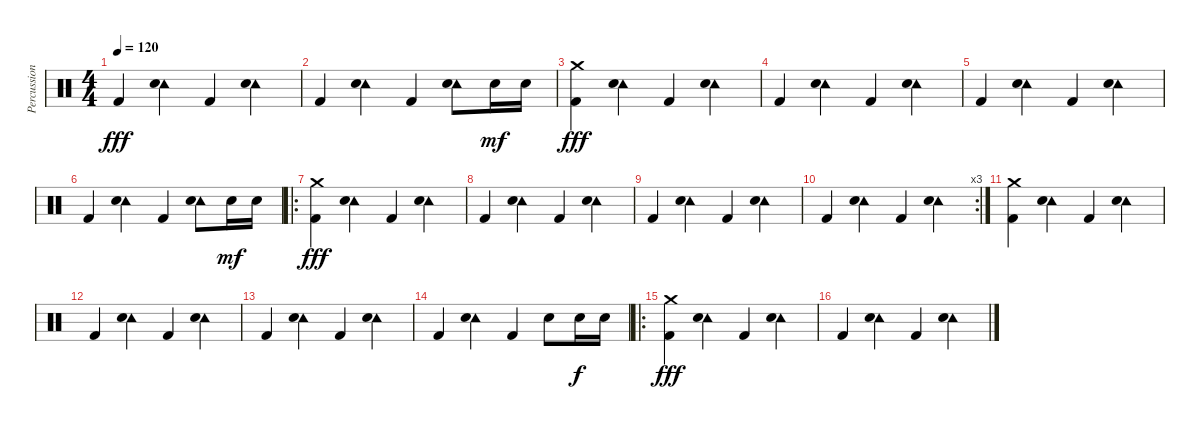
\track ("Percussion" "Percussion") {instrument percussion}
\staff {score}
\articulation defaults
\ts (4 4)
\tempo 120
\clef neutral
\ks c "Kick (hit) 2".4{dy fff}
("Tambourine (hit)" "Electric Snare (hit)").4 "Kick (hit) 2".4 ("Tambourine (hit)" "Electric Snare (hit)").4 |
"Kick (hit) 2".4 ("Tambourine (hit)" "Electric Snare (hit)").4 "Kick (hit) 2".4 ("Tambourine (hit)" "Electric Snare (hit)").8 "Electric Snare (hit)".16{dy mf} "Electric Snare (hit)".16 |
("Crash medium (hit)" "Kick (hit) 2").4{dy fff} ("Tambourine (hit)" "Electric Snare (hit)").4 "Kick (hit) 2".4 ("Tambourine (hit)" "Electric Snare (hit)").4 |
"Kick (hit) 2".4 ("Tambourine (hit)" "Electric Snare (hit)").4 "Kick (hit) 2".4 ("Tambourine (hit)" "Electric Snare (hit)").4 |
"Kick (hit) 2".4 ("Tambourine (hit)" "Electric Snare (hit)").4 "Kick (hit) 2".4 ("Tambourine (hit)" "Electric Snare (hit)").4 |
"Kick (hit) 2".4 ("Tambourine (hit)" "Electric Snare (hit)").4 "Kick (hit) 2".4 ("Tambourine (hit)" "Electric Snare (hit)").8 "Electric Snare (hit)".16{dy mf} "Electric Snare (hit)".16 |
\ro
("Crash medium (hit)" "Kick (hit) 2").4{dy fff} ("Tambourine (hit)" "Electric Snare (hit)").4 "Kick (hit) 2".4 ("Tambourine (hit)" "Electric Snare (hit)").4 |
"Kick (hit) 2".4 ("Tambourine (hit)" "Electric Snare (hit)").4 "Kick (hit) 2".4 ("Tambourine (hit)" "Electric Snare (hit)").4 |
"Kick (hit) 2".4 ("Tambourine (hit)" "Electric Snare (hit)").4 "Kick (hit) 2".4 ("Tambourine (hit)" "Electric Snare (hit)").4 |
\rc 3 "Kick (hit) 2".4
("Tambourine (hit)" "Electric Snare (hit)").4 "Kick (hit) 2".4 ("Tambourine (hit)" "Electric Snare (hit)").4 |
("Crash medium (hit)" "Kick (hit) 2").4 ("Tambourine (hit)" "Electric Snare (hit)").4 "Kick (hit) 2".4 ("Tambourine (hit)" "Electric Snare (hit)").4 |
"Kick (hit) 2".4 ("Tambourine (hit)" "Electric Snare (hit)").4 "Kick (hit) 2".4 ("Tambourine (hit)" "Electric Snare (hit)").4 |
"Kick (hit) 2".4 ("Tambourine (hit)" "Electric Snare (hit)").4 "Kick (hit) 2".4 ("Tambourine (hit)" "Electric Snare (hit)").4 |
"Kick (hit) 2".4 ("Tambourine (hit)" "Electric Snare (hit)").4 "Kick (hit) 2".4 "Electric Snare (hit)".8 "Electric Snare (hit)".16{dy f} "Electric Snare (hit)".16 |
\ro
("Crash medium (hit)" "Kick (hit) 2").4{dy fff} ("Tambourine (hit)" "Electric Snare (hit)").4 "Kick (hit) 2".4 ("Tambourine (hit)" "Electric Snare (hit)").4 |
"Kick (hit) 2".4 ("Tambourine (hit)" "Electric Snare (hit)").4 "Kick (hit) 2".4 ("Tambourine (hit)" "Electric Snare (hit)").4
